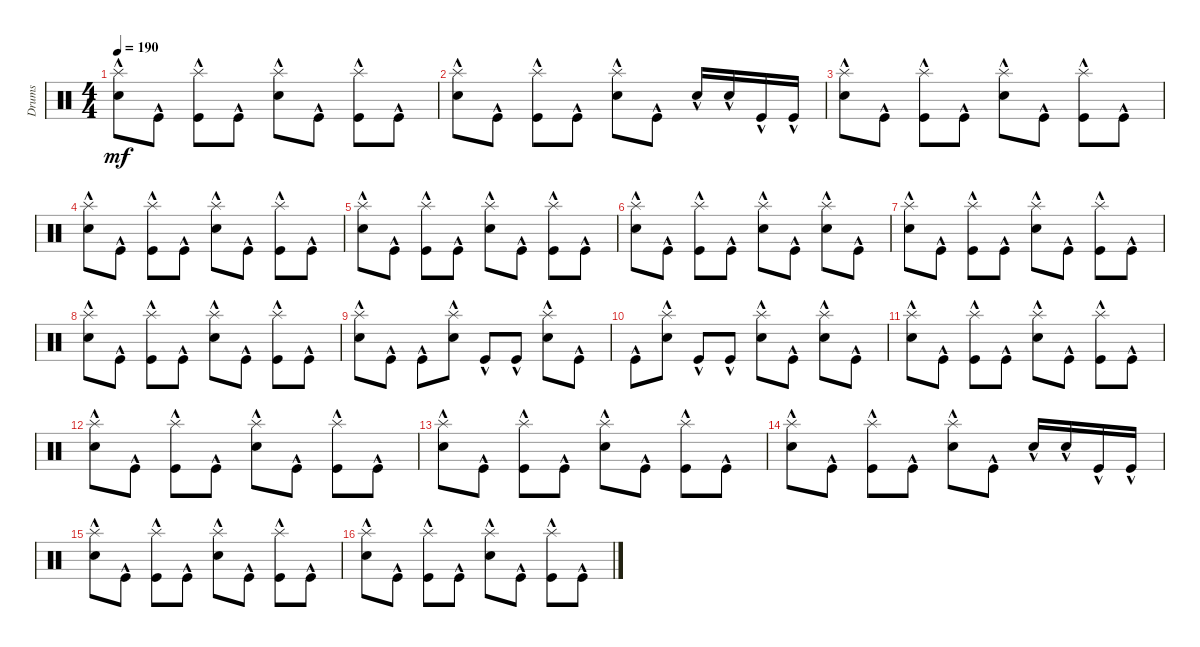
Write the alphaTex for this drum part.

\track ("Drums" "Drums") {instrument percussion}
\staff {score}
\articulation defaults
\ts (4 4)
\tempo 190
\clef neutral
\ks c
("Snare (hit) 2"{hac} "Splash (hit)"{hac}).8{dy mf} "Kick (hit)"{hac}.8 ("Kick (hit)"{hac} "Splash (hit)"{hac}).8 "Kick (hit)"{hac}.8 ("Snare (hit) 2"{hac} "Splash (hit)"{hac}).8 "Kick (hit)"{hac}.8 ("Kick (hit)"{hac} "Splash (hit)"{hac}).8 "Kick (hit)"{hac}.8 |
("Snare (hit) 2"{hac} "Splash (hit)"{hac}).8 "Kick (hit)"{hac}.8 ("Kick (hit)"{hac} "Splash (hit)"{hac}).8 "Kick (hit)"{hac}.8 ("Snare (hit) 2"{hac} "Splash (hit)"{hac}).8 "Kick (hit)"{hac}.8 "Snare (hit) 2"{hac}.16 "Snare (hit) 2"{hac}.16 "Kick (hit)"{hac}.16 "Kick (hit)"{hac}.16 |
("Snare (hit) 2"{hac} "Splash (hit)"{hac}).8 "Kick (hit)"{hac}.8 ("Kick (hit)"{hac} "Splash (hit)"{hac}).8 "Kick (hit)"{hac}.8 ("Snare (hit) 2"{hac} "Splash (hit)"{hac}).8 "Kick (hit)"{hac}.8 ("Kick (hit)"{hac} "Splash (hit)"{hac}).8 "Kick (hit)"{hac}.8 |
("Snare (hit) 2"{hac} "Splash (hit)"{hac}).8 "Kick (hit)"{hac}.8 ("Kick (hit)"{hac} "Splash (hit)"{hac}).8 "Kick (hit)"{hac}.8 ("Snare (hit) 2"{hac} "Splash (hit)"{hac}).8 "Kick (hit)"{hac}.8 ("Kick (hit)"{hac} "Splash (hit)"{hac}).8 "Kick (hit)"{hac}.8 |
("Snare (hit) 2"{hac} "Splash (hit)"{hac}).8 "Kick (hit)"{hac}.8 ("Kick (hit)"{hac} "Splash (hit)"{hac}).8 "Kick (hit)"{hac}.8 ("Snare (hit) 2"{hac} "Splash (hit)"{hac}).8 "Kick (hit)"{hac}.8 ("Kick (hit)"{hac} "Splash (hit)"{hac}).8 "Kick (hit)"{hac}.8 |
("Snare (hit) 2"{hac} "Splash (hit)"{hac}).8 "Kick (hit)"{hac}.8 ("Kick (hit)"{hac} "Splash (hit)"{hac}).8 "Kick (hit)"{hac}.8 ("Snare (hit) 2"{hac} "Splash (hit)"{hac}).8 "Kick (hit)"{hac}.8 ("Splash (hit)"{hac} "Snare (hit) 2"{hac}).8 "Kick (hit)"{hac}.8 |
("Snare (hit) 2"{hac} "Splash (hit)"{hac}).8 "Kick (hit)"{hac}.8 ("Kick (hit)"{hac} "Splash (hit)"{hac}).8 "Kick (hit)"{hac}.8 ("Snare (hit) 2"{hac} "Splash (hit)"{hac}).8 "Kick (hit)"{hac}.8 ("Kick (hit)"{hac} "Splash (hit)"{hac}).8 "Kick (hit)"{hac}.8 |
("Snare (hit) 2"{hac} "Splash (hit)"{hac}).8 "Kick (hit)"{hac}.8 ("Kick (hit)"{hac} "Splash (hit)"{hac}).8 "Kick (hit)"{hac}.8 ("Snare (hit) 2"{hac} "Splash (hit)"{hac}).8 "Kick (hit)"{hac}.8 ("Kick (hit)"{hac} "Splash (hit)"{hac}).8 "Kick (hit)"{hac}.8 |
("Snare (hit) 2"{hac} "Splash (hit)"{hac}).8 "Kick (hit)"{hac}.8 "Kick (hit)"{hac}.8 ("Snare (hit) 2"{hac} "Splash (hit)"{hac}).8 "Kick (hit)"{hac}.8 "Kick (hit)"{hac}.8 ("Snare (hit) 2"{hac} "Splash (hit)"{hac}).8 "Kick (hit)"{hac}.8 |
"Kick (hit)"{hac}.8 ("Snare (hit) 2"{hac} "Splash (hit)"{hac}).8 "Kick (hit)"{hac}.8 "Kick (hit)"{hac}.8 ("Snare (hit) 2"{hac} "Splash (hit)"{hac}).8 "Kick (hit)"{hac}.8 ("Snare (hit) 2"{hac} "Splash (hit)"{hac}).8 "Kick (hit)"{hac}.8 |
("Snare (hit) 2"{hac} "Splash (hit)"{hac}).8 "Kick (hit)"{hac}.8 ("Kick (hit)"{hac} "Splash (hit)"{hac}).8 "Kick (hit)"{hac}.8 ("Snare (hit) 2"{hac} "Splash (hit)"{hac}).8 "Kick (hit)"{hac}.8 ("Kick (hit)"{hac} "Splash (hit)"{hac}).8 "Kick (hit)"{hac}.8 |
("Snare (hit) 2"{hac} "Splash (hit)"{hac}).8 "Kick (hit)"{hac}.8 ("Kick (hit)"{hac} "Splash (hit)"{hac}).8 "Kick (hit)"{hac}.8 ("Snare (hit) 2"{hac} "Splash (hit)"{hac}).8 "Kick (hit)"{hac}.8 ("Kick (hit)"{hac} "Splash (hit)"{hac}).8 "Kick (hit)"{hac}.8 |
("Snare (hit) 2"{hac} "Splash (hit)"{hac}).8 "Kick (hit)"{hac}.8 ("Kick (hit)"{hac} "Splash (hit)"{hac}).8 "Kick (hit)"{hac}.8 ("Snare (hit) 2"{hac} "Splash (hit)"{hac}).8 "Kick (hit)"{hac}.8 ("Kick (hit)"{hac} "Splash (hit)"{hac}).8 "Kick (hit)"{hac}.8 |
("Snare (hit) 2"{hac} "Splash (hit)"{hac}).8 "Kick (hit)"{hac}.8 ("Kick (hit)"{hac} "Splash (hit)"{hac}).8 "Kick (hit)"{hac}.8 ("Snare (hit) 2"{hac} "Splash (hit)"{hac}).8 "Kick (hit)"{hac}.8 "Snare (hit) 2"{hac}.16 "Snare (hit) 2"{hac}.16 "Kick (hit)"{hac}.16 "Kick (hit)"{hac}.16 |
("Snare (hit) 2"{hac} "Splash (hit)"{hac}).8 "Kick (hit)"{hac}.8 ("Kick (hit)"{hac} "Splash (hit)"{hac}).8 "Kick (hit)"{hac}.8 ("Snare (hit) 2"{hac} "Splash (hit)"{hac}).8 "Kick (hit)"{hac}.8 ("Kick (hit)"{hac} "Splash (hit)"{hac}).8 "Kick (hit)"{hac}.8 |
("Snare (hit) 2"{hac} "Splash (hit)"{hac}).8 "Kick (hit)"{hac}.8 ("Kick (hit)"{hac} "Splash (hit)"{hac}).8 "Kick (hit)"{hac}.8 ("Snare (hit) 2"{hac} "Splash (hit)"{hac}).8 "Kick (hit)"{hac}.8 ("Kick (hit)"{hac} "Splash (hit)"{hac}).8 "Kick (hit)"{hac}.8
